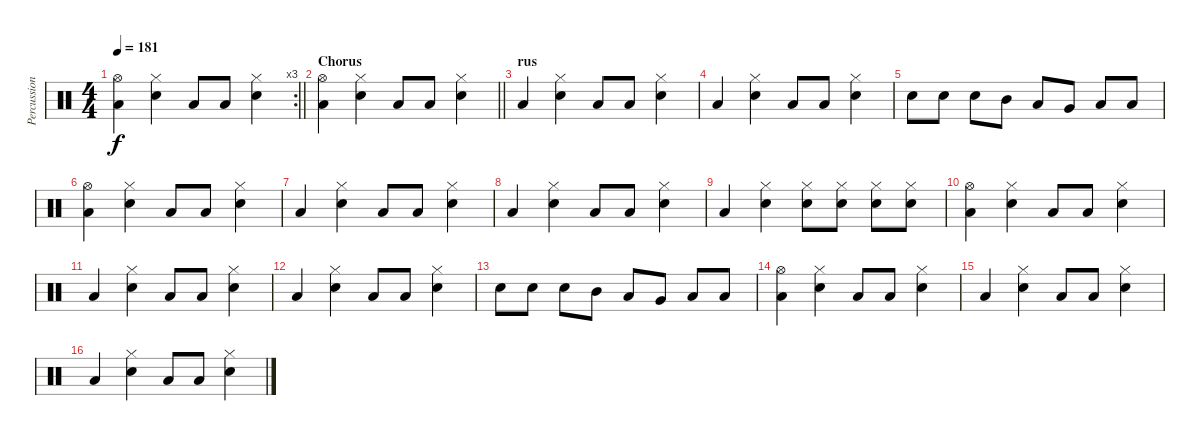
\track ("Percussion" "Percussion") {instrument percussion}
\staff {score}
\articulation defaults
\rc 3
\ts (4 4)
\tempo 181
\clef neutral
\barLineRight lightlight
\ks c
("Hi-Hat (open)" "Low Tom (hit)").4{dy f} ("Hi-Hat (closed)" "Snare (hit) 2").4 "Low Tom (hit)".8 "Low Tom (hit)".8 ("Hi-Hat (closed)" "Snare (hit) 2").4 |
\section ("" "Chorus")
\barLineRight lightlight
("Hi-Hat (open)" "Low Tom (hit)").4 ("Hi-Hat (closed)" "Snare (hit) 2").4 "Low Tom (hit)".8 "Low Tom (hit)".8 ("Hi-Hat (closed)" "Snare (hit) 2").4 |
\section ("" "rus")
"Low Tom (hit)".4 ("Hi-Hat (closed)" "Snare (hit) 2").4 "Low Tom (hit)".8 "Low Tom (hit)".8 ("Hi-Hat (closed)" "Snare (hit) 2").4 |
"Low Tom (hit)".4 ("Hi-Hat (closed)" "Snare (hit) 2").4 "Low Tom (hit)".8 "Low Tom (hit)".8 ("Hi-Hat (closed)" "Snare (hit) 2").4 |
"Snare (hit) 2".8 "Snare (hit) 2".8 "Snare (hit) 2".8 "Mid Tom (hit)".8 "Low Tom (hit)".8 "Very Low Tom (hit)".8 "Low Floor Tom (hit)".8 "Low Floor Tom (hit)".8 |
("Hi-Hat (open)" "Low Tom (hit)").4 ("Hi-Hat (closed)" "Snare (hit) 2").4 "Low Tom (hit)".8 "Low Tom (hit)".8 ("Hi-Hat (closed)" "Snare (hit) 2").4 |
"Low Tom (hit)".4 ("Hi-Hat (closed)" "Snare (hit) 2").4 "Low Tom (hit)".8 "Low Tom (hit)".8 ("Hi-Hat (closed)" "Snare (hit) 2").4 |
"Low Tom (hit)".4 ("Hi-Hat (closed)" "Snare (hit) 2").4 "Low Tom (hit)".8 "Low Tom (hit)".8 ("Hi-Hat (closed)" "Snare (hit) 2").4 |
"Low Tom (hit)".4 ("Hi-Hat (closed)" "Snare (hit) 2").4 ("Hi-Hat (closed)" "Snare (hit) 2").8 ("Hi-Hat (closed)" "Snare (hit) 2").8 ("Hi-Hat (closed)" "Snare (hit) 2").8 ("Hi-Hat (closed)" "Snare (hit) 2").8 |
("Hi-Hat (open)" "Low Tom (hit)").4 ("Hi-Hat (closed)" "Snare (hit) 2").4 "Low Tom (hit)".8 "Low Tom (hit)".8 ("Hi-Hat (closed)" "Snare (hit) 2").4 |
"Low Tom (hit)".4 ("Hi-Hat (closed)" "Snare (hit) 2").4 "Low Tom (hit)".8 "Low Tom (hit)".8 ("Hi-Hat (closed)" "Snare (hit) 2").4 |
"Low Tom (hit)".4 ("Hi-Hat (closed)" "Snare (hit) 2").4 "Low Tom (hit)".8 "Low Tom (hit)".8 ("Hi-Hat (closed)" "Snare (hit) 2").4 |
"Snare (hit) 2".8 "Snare (hit) 2".8 "Snare (hit) 2".8 "Mid Tom (hit)".8 "Low Tom (hit)".8 "Very Low Tom (hit)".8 "Low Floor Tom (hit)".8 "Low Floor Tom (hit)".8 |
("Hi-Hat (open)" "Low Tom (hit)").4 ("Hi-Hat (closed)" "Snare (hit) 2").4 "Low Tom (hit)".8 "Low Tom (hit)".8 ("Hi-Hat (closed)" "Snare (hit) 2").4 |
"Low Tom (hit)".4 ("Hi-Hat (closed)" "Snare (hit) 2").4 "Low Tom (hit)".8 "Low Tom (hit)".8 ("Hi-Hat (closed)" "Snare (hit) 2").4 |
"Low Tom (hit)".4 ("Hi-Hat (closed)" "Snare (hit) 2").4 "Low Tom (hit)".8 "Low Tom (hit)".8 ("Hi-Hat (closed)" "Snare (hit) 2").4
